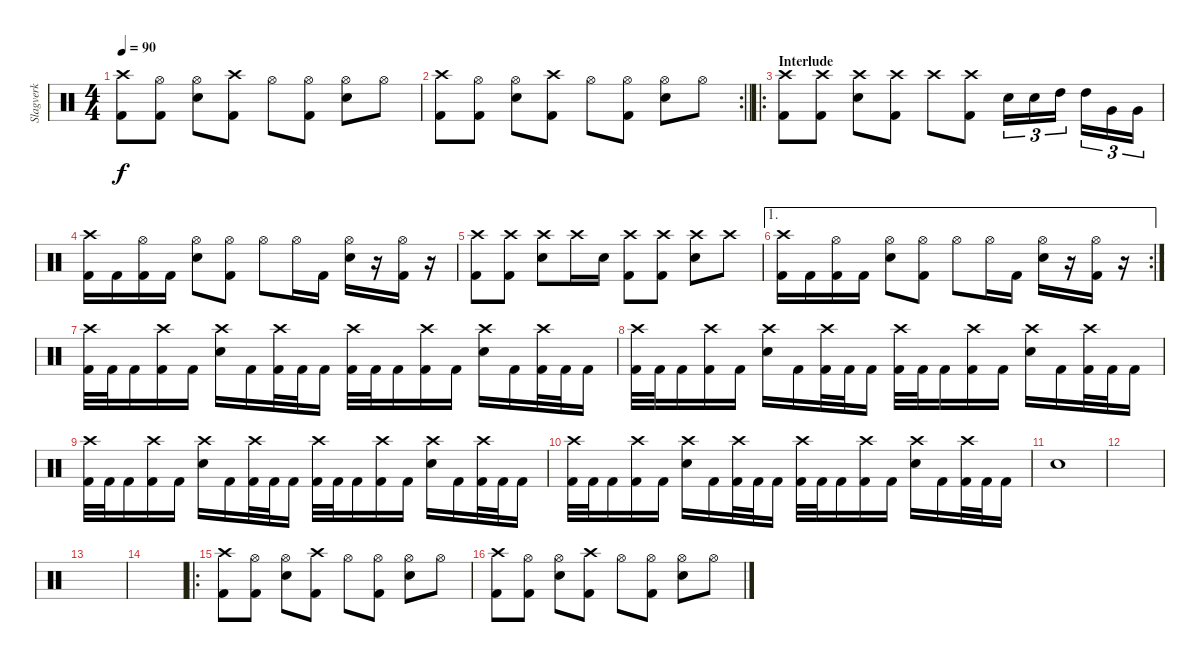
\track ("Slagverk" "Slagverk") {instrument percussion}
\staff {score}
\articulation defaults
\ts (4 4)
\tempo 90
\clef neutral
\ks c
("Kick (hit) 2" "Crash high (hit)").8{dy f} ("Kick (hit) 2" "Hi-Hat (open)").8 ("Hi-Hat (open)" "Snare (hit) 2").8 ("Kick (hit) 2" "Crash high (hit)").8 "Hi-Hat (open)".8 ("Kick (hit) 2" "Hi-Hat (open)").8 ("Hi-Hat (open)" "Snare (hit) 2").8 "Hi-Hat (open)".8 |
\rc 2
\barLineRight lightlight
("Kick (hit) 2" "Crash high (hit)").8 ("Kick (hit) 2" "Hi-Hat (open)").8 ("Hi-Hat (open)" "Snare (hit) 2").8 ("Kick (hit) 2" "Crash high (hit)").8 "Hi-Hat (open)".8 ("Kick (hit) 2" "Hi-Hat (open)").8 ("Hi-Hat (open)" "Snare (hit) 2").8 "Hi-Hat (open)".8 |
\ro
\section ("" "Interlude")
("Kick (hit) 2" "Crash high (hit)").8 ("Kick (hit) 2" "Crash high (hit)").8 ("Crash high (hit)" "Snare (hit) 2").8 ("Kick (hit) 2" "Crash high (hit)").8 "Crash high (hit)".8 ("Kick (hit) 2" "Crash high (hit)").8 "Snare (hit) 2".16{tu (3 2)} "Snare (hit) 2".16{tu (3 2)} "High Tom (hit)".16{tu (3 2) beam splitsecondary} "High Tom (hit)".16{tu (3 2)} "Very Low Tom (hit)".16{tu (3 2)} "Very Low Tom (hit)".16{tu (3 2)} |
("Kick (hit) 2" "Crash high (hit)").16 "Kick (hit) 2".16 ("Kick (hit) 2" "Hi-Hat (open)").16 "Kick (hit) 2".16 ("Hi-Hat (open)" "Snare (hit) 2").8 ("Kick (hit) 2" "Hi-Hat (open)").8 "Hi-Hat (open)".8 "Hi-Hat (open)".16 "Kick (hit) 2".16 ("Hi-Hat (open)" "Snare (hit) 2").16 r.16 ("Kick (hit) 2" "Hi-Hat (open)").16 r.16 |
("Kick (hit) 2" "Crash high (hit)").8 ("Kick (hit) 2" "Crash high (hit)").8 ("Crash high (hit)" "Snare (hit) 2").8 "Crash high (hit)".16 "Snare (hit) 2".16 ("Kick (hit) 2" "Crash high (hit)").8 ("Kick (hit) 2" "Crash high (hit)").8 ("Crash high (hit)" "Snare (hit) 2").8 "Crash high (hit)".8 |
\ae 1
\rc 2
("Kick (hit) 2" "Crash high (hit)").16 "Kick (hit) 2".16 ("Kick (hit) 2" "Hi-Hat (open)").16 "Kick (hit) 2".16 ("Hi-Hat (open)" "Snare (hit) 2").8 ("Kick (hit) 2" "Hi-Hat (open)").8 "Hi-Hat (open)".8 "Hi-Hat (open)".16 "Kick (hit) 2".16 ("Hi-Hat (open)" "Snare (hit) 2").16 r.16 ("Kick (hit) 2" "Hi-Hat (open)").16 r.16 |
("Kick (hit) 2" "Crash high (hit)").32 "Kick (hit) 2".32 "Kick (hit) 2".16 ("Kick (hit) 2" "Crash high (hit)").16 "Kick (hit) 2".16 ("Crash high (hit)" "Snare (hit) 2").16 "Kick (hit) 2".16 ("Kick (hit) 2" "Crash high (hit)").32 "Kick (hit) 2".32 "Kick (hit) 2".16 ("Kick (hit) 2" "Crash high (hit)").32 "Kick (hit) 2".32 "Kick (hit) 2".16 ("Kick (hit) 2" "Crash high (hit)").16 "Kick (hit) 2".16 ("Crash high (hit)" "Snare (hit) 2").16 "Kick (hit) 2".16 ("Kick (hit) 2" "Crash high (hit)").32 "Kick (hit) 2".32 "Kick (hit) 2".16 |
("Kick (hit) 2" "Crash high (hit)").32 "Kick (hit) 2".32 "Kick (hit) 2".16 ("Kick (hit) 2" "Crash high (hit)").16 "Kick (hit) 2".16 ("Crash high (hit)" "Snare (hit) 2").16 "Kick (hit) 2".16 ("Kick (hit) 2" "Crash high (hit)").32 "Kick (hit) 2".32 "Kick (hit) 2".16 ("Kick (hit) 2" "Crash high (hit)").32 "Kick (hit) 2".32 "Kick (hit) 2".16 ("Kick (hit) 2" "Crash high (hit)").16 "Kick (hit) 2".16 ("Crash high (hit)" "Snare (hit) 2").16 "Kick (hit) 2".16 ("Kick (hit) 2" "Crash high (hit)").32 "Kick (hit) 2".32 "Kick (hit) 2".16 |
("Kick (hit) 2" "Crash high (hit)").32 "Kick (hit) 2".32 "Kick (hit) 2".16 ("Kick (hit) 2" "Crash high (hit)").16 "Kick (hit) 2".16 ("Crash high (hit)" "Snare (hit) 2").16 "Kick (hit) 2".16 ("Kick (hit) 2" "Crash high (hit)").32 "Kick (hit) 2".32 "Kick (hit) 2".16 ("Kick (hit) 2" "Crash high (hit)").32 "Kick (hit) 2".32 "Kick (hit) 2".16 ("Kick (hit) 2" "Crash high (hit)").16 "Kick (hit) 2".16 ("Crash high (hit)" "Snare (hit) 2").16 "Kick (hit) 2".16 ("Kick (hit) 2" "Crash high (hit)").32 "Kick (hit) 2".32 "Kick (hit) 2".16 |
("Kick (hit) 2" "Crash high (hit)").32 "Kick (hit) 2".32 "Kick (hit) 2".16 ("Kick (hit) 2" "Crash high (hit)").16 "Kick (hit) 2".16 ("Crash high (hit)" "Snare (hit) 2").16 "Kick (hit) 2".16 ("Kick (hit) 2" "Crash high (hit)").32 "Kick (hit) 2".32 "Kick (hit) 2".16 ("Kick (hit) 2" "Crash high (hit)").32 "Kick (hit) 2".32 "Kick (hit) 2".16 ("Kick (hit) 2" "Crash high (hit)").16 "Kick (hit) 2".16 ("Crash high (hit)" "Snare (hit) 2").16 "Kick (hit) 2".16 ("Kick (hit) 2" "Crash high (hit)").32 "Kick (hit) 2".32 "Kick (hit) 2".16 |
"Snare (hit) 2".1 |
|
|
|
\ro
("Kick (hit) 2" "Crash high (hit)").8 ("Kick (hit) 2" "Hi-Hat (open)").8 ("Hi-Hat (open)" "Snare (hit) 2").8 ("Kick (hit) 2" "Crash high (hit)").8 "Hi-Hat (open)".8 ("Kick (hit) 2" "Hi-Hat (open)").8 ("Hi-Hat (open)" "Snare (hit) 2").8 "Hi-Hat (open)".8 |
("Kick (hit) 2" "Crash high (hit)").8 ("Kick (hit) 2" "Hi-Hat (open)").8 ("Hi-Hat (open)" "Snare (hit) 2").8 ("Kick (hit) 2" "Crash high (hit)").8 "Hi-Hat (open)".8 ("Kick (hit) 2" "Hi-Hat (open)").8 ("Hi-Hat (open)" "Snare (hit) 2").8 "Hi-Hat (open)".8
